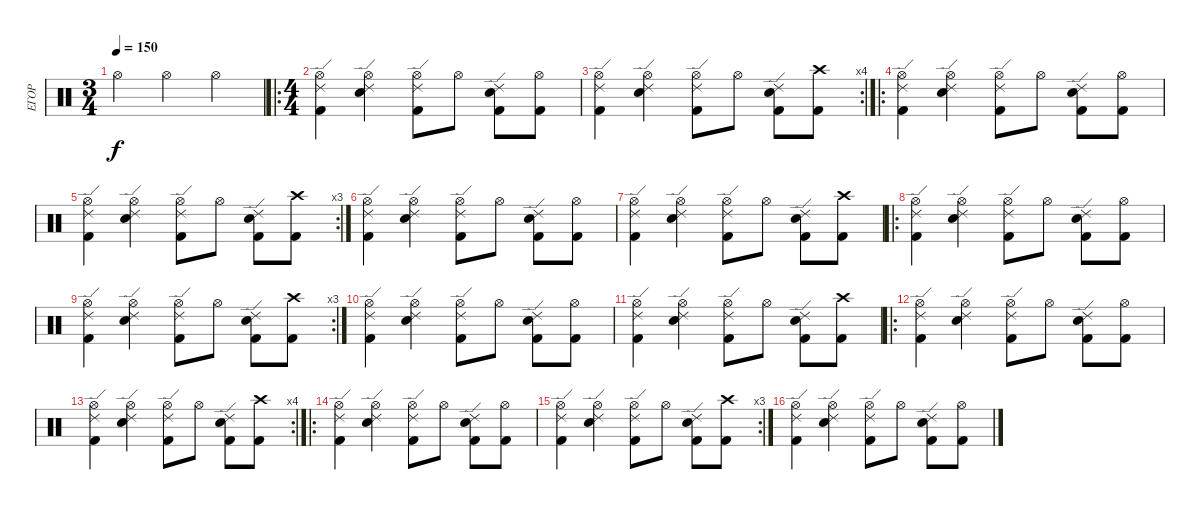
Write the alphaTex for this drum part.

\track ("ЕГОР" "ЕГОР") {instrument percussion}
\staff {score}
\articulation defaults
\ts (3 4)
\tempo 150
\clef neutral
\ks c "Hi-Hat (open)".4{dy f} "Hi-Hat (open)".4 "Hi-Hat (open)".4
|
\ro
\ts (4 4)
("Hi-Hat (open)" "Ride (edge) 2" "Kick (hit) 2").4 ("Hi-Hat (open)" "Snare (hit) 2" "Ride (edge) 2").4 ("Hi-Hat (open)" "Ride (edge) 2" "Kick (hit) 2").8 "Hi-Hat (open)".8 ("Snare (hit) 2" "Ride (edge) 2" "Kick (hit) 2").8 ("Hi-Hat (open)" "Kick (hit) 2").8 |
\rc 4
("Hi-Hat (open)" "Ride (edge) 2" "Kick (hit) 2").4 ("Hi-Hat (open)" "Snare (hit) 2" "Ride (edge) 2").4 ("Hi-Hat (open)" "Ride (edge) 2" "Kick (hit) 2").8 "Hi-Hat (open)".8 ("Snare (hit) 2" "Ride (edge) 2" "Kick (hit) 2").8 ("Crash high (hit)" "Kick (hit) 2").8 |
\ro
("Hi-Hat (open)" "Ride (edge) 2" "Kick (hit) 2").4 ("Hi-Hat (open)" "Snare (hit) 2" "Ride (edge) 2").4 ("Hi-Hat (open)" "Ride (edge) 2" "Kick (hit) 2").8 "Hi-Hat (open)".8 ("Snare (hit) 2" "Ride (edge) 2" "Kick (hit) 2").8 ("Hi-Hat (open)" "Kick (hit) 2").8 |
\rc 3
("Hi-Hat (open)" "Ride (edge) 2" "Kick (hit) 2").4 ("Hi-Hat (open)" "Snare (hit) 2" "Ride (edge) 2").4 ("Hi-Hat (open)" "Ride (edge) 2" "Kick (hit) 2").8 "Hi-Hat (open)".8 ("Snare (hit) 2" "Ride (edge) 2" "Kick (hit) 2").8 ("Crash high (hit)" "Kick (hit) 2").8 |
("Hi-Hat (open)" "Ride (edge) 2" "Kick (hit) 2").4 ("Hi-Hat (open)" "Snare (hit) 2" "Ride (edge) 2").4 ("Hi-Hat (open)" "Ride (edge) 2" "Kick (hit) 2").8 "Hi-Hat (open)".8 ("Snare (hit) 2" "Ride (edge) 2" "Kick (hit) 2").8 ("Hi-Hat (open)" "Kick (hit) 2").8 |
("Hi-Hat (open)" "Ride (edge) 2" "Kick (hit) 2").4 ("Hi-Hat (open)" "Snare (hit) 2" "Ride (edge) 2").4 ("Hi-Hat (open)" "Ride (edge) 2" "Kick (hit) 2").8 "Hi-Hat (open)".8 ("Snare (hit) 2" "Ride (edge) 2" "Kick (hit) 2").8 ("Crash high (hit)" "Kick (hit) 2").8 |
\ro
("Hi-Hat (open)" "Ride (edge) 2" "Kick (hit) 2").4 ("Hi-Hat (open)" "Snare (hit) 2" "Ride (edge) 2").4 ("Hi-Hat (open)" "Ride (edge) 2" "Kick (hit) 2").8 "Hi-Hat (open)".8 ("Snare (hit) 2" "Ride (edge) 2" "Kick (hit) 2").8 ("Hi-Hat (open)" "Kick (hit) 2").8 |
\rc 3
("Hi-Hat (open)" "Ride (edge) 2" "Kick (hit) 2").4 ("Hi-Hat (open)" "Snare (hit) 2" "Ride (edge) 2").4 ("Hi-Hat (open)" "Ride (edge) 2" "Kick (hit) 2").8 "Hi-Hat (open)".8 ("Snare (hit) 2" "Ride (edge) 2" "Kick (hit) 2").8 ("Crash high (hit)" "Kick (hit) 2").8 |
("Hi-Hat (open)" "Ride (edge) 2" "Kick (hit) 2").4 ("Hi-Hat (open)" "Snare (hit) 2" "Ride (edge) 2").4 ("Hi-Hat (open)" "Ride (edge) 2" "Kick (hit) 2").8 "Hi-Hat (open)".8 ("Snare (hit) 2" "Ride (edge) 2" "Kick (hit) 2").8 ("Hi-Hat (open)" "Kick (hit) 2").8 |
("Hi-Hat (open)" "Ride (edge) 2" "Kick (hit) 2").4 ("Hi-Hat (open)" "Snare (hit) 2" "Ride (edge) 2").4 ("Hi-Hat (open)" "Ride (edge) 2" "Kick (hit) 2").8 "Hi-Hat (open)".8 ("Snare (hit) 2" "Ride (edge) 2" "Kick (hit) 2").8 ("Crash high (hit)" "Kick (hit) 2").8 |
\ro
("Hi-Hat (open)" "Ride (edge) 2" "Kick (hit) 2").4 ("Hi-Hat (open)" "Snare (hit) 2" "Ride (edge) 2").4 ("Hi-Hat (open)" "Ride (edge) 2" "Kick (hit) 2").8 "Hi-Hat (open)".8 ("Snare (hit) 2" "Ride (edge) 2" "Kick (hit) 2").8 ("Hi-Hat (open)" "Kick (hit) 2").8 |
\rc 4
("Hi-Hat (open)" "Ride (edge) 2" "Kick (hit) 2").4 ("Hi-Hat (open)" "Snare (hit) 2" "Ride (edge) 2").4 ("Hi-Hat (open)" "Ride (edge) 2" "Kick (hit) 2").8 "Hi-Hat (open)".8 ("Snare (hit) 2" "Ride (edge) 2" "Kick (hit) 2").8 ("Crash high (hit)" "Kick (hit) 2").8 |
\ro
("Hi-Hat (open)" "Ride (edge) 2" "Kick (hit) 2").4 ("Hi-Hat (open)" "Snare (hit) 2" "Ride (edge) 2").4 ("Hi-Hat (open)" "Ride (edge) 2" "Kick (hit) 2").8 "Hi-Hat (open)".8 ("Snare (hit) 2" "Ride (edge) 2" "Kick (hit) 2").8 ("Hi-Hat (open)" "Kick (hit) 2").8 |
\rc 3
("Hi-Hat (open)" "Ride (edge) 2" "Kick (hit) 2").4 ("Hi-Hat (open)" "Snare (hit) 2" "Ride (edge) 2").4 ("Hi-Hat (open)" "Ride (edge) 2" "Kick (hit) 2").8 "Hi-Hat (open)".8 ("Snare (hit) 2" "Ride (edge) 2" "Kick (hit) 2").8 ("Crash high (hit)" "Kick (hit) 2").8 |
("Hi-Hat (open)" "Ride (edge) 2" "Kick (hit) 2").4 ("Hi-Hat (open)" "Snare (hit) 2" "Ride (edge) 2").4 ("Hi-Hat (open)" "Ride (edge) 2" "Kick (hit) 2").8 "Hi-Hat (open)".8 ("Snare (hit) 2" "Ride (edge) 2" "Kick (hit) 2").8 ("Hi-Hat (open)" "Kick (hit) 2").8
